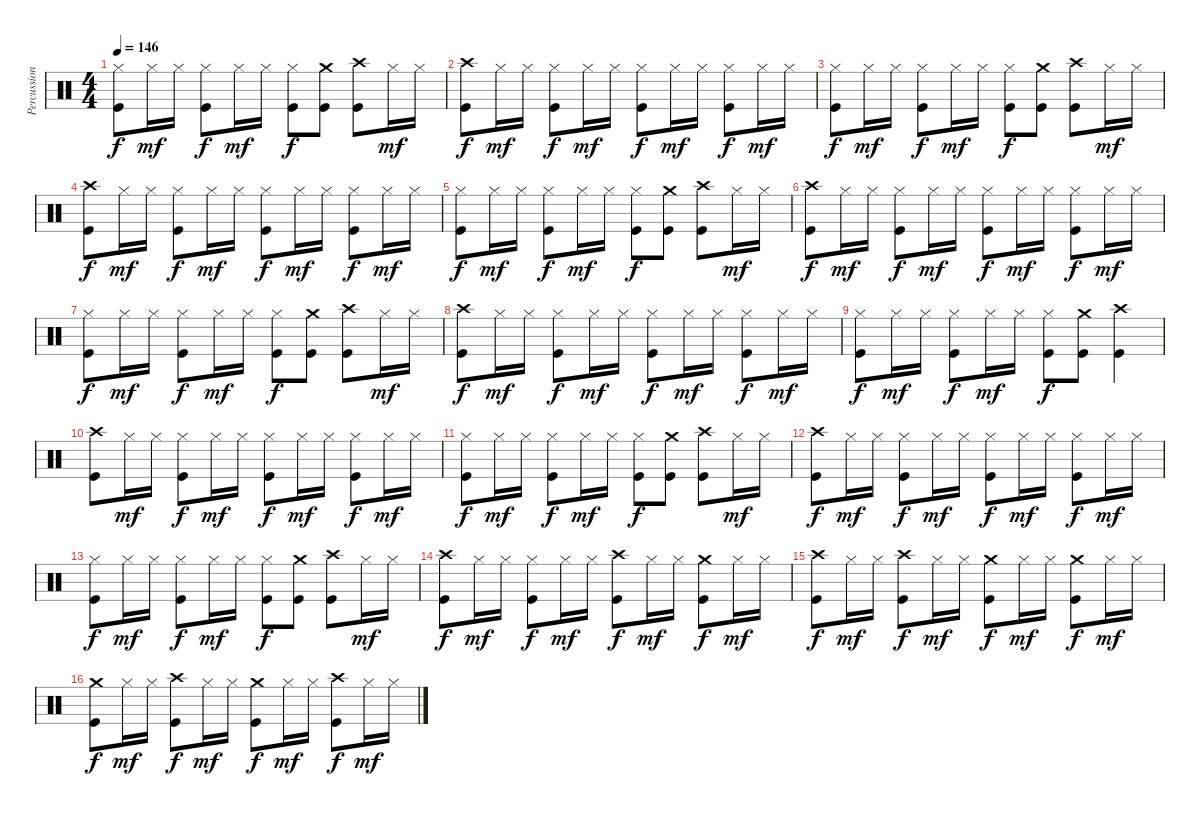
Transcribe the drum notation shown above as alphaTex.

\track ("Percussion" "Percussion") {instrument percussion}
\staff {score}
\articulation defaults
\ts (4 4)
\tempo 146
\clef neutral
\ks c
("Hi-Hat (closed)" "Kick (hit)").8{dy f} "Hi-Hat (closed)".16{dy mf} "Hi-Hat (closed)".16 ("Hi-Hat (closed)" "Kick (hit)").8{dy f} "Hi-Hat (closed)".16{dy mf} "Hi-Hat (closed)".16 ("Hi-Hat (closed)" "Kick (hit)").8{dy f} ("Crash medium (hit)" "Kick (hit)").8 ("Crash high (hit)" "Kick (hit)").8 "Hi-Hat (closed)".16{dy mf} "Hi-Hat (closed)".16 |
("Crash high (hit)" "Kick (hit)").8{dy f} "Hi-Hat (closed)".16{dy mf} "Hi-Hat (closed)".16 ("Hi-Hat (closed)" "Kick (hit)").8{dy f} "Hi-Hat (closed)".16{dy mf} "Hi-Hat (closed)".16 ("Hi-Hat (closed)" "Kick (hit)").8{dy f} "Hi-Hat (closed)".16{dy mf} "Hi-Hat (closed)".16 ("Hi-Hat (closed)" "Kick (hit)").8{dy f} "Hi-Hat (closed)".16{dy mf} "Hi-Hat (closed)".16 |
("Hi-Hat (closed)" "Kick (hit)").8{dy f} "Hi-Hat (closed)".16{dy mf} "Hi-Hat (closed)".16 ("Hi-Hat (closed)" "Kick (hit)").8{dy f} "Hi-Hat (closed)".16{dy mf} "Hi-Hat (closed)".16 ("Hi-Hat (closed)" "Kick (hit)").8{dy f} ("Crash medium (hit)" "Kick (hit)").8 ("Crash high (hit)" "Kick (hit)").8 "Hi-Hat (closed)".16{dy mf} "Hi-Hat (closed)".16 |
("Crash high (hit)" "Kick (hit)").8{dy f} "Hi-Hat (closed)".16{dy mf} "Hi-Hat (closed)".16 ("Hi-Hat (closed)" "Kick (hit)").8{dy f} "Hi-Hat (closed)".16{dy mf} "Hi-Hat (closed)".16 ("Hi-Hat (closed)" "Kick (hit)").8{dy f} "Hi-Hat (closed)".16{dy mf} "Hi-Hat (closed)".16 ("Hi-Hat (closed)" "Kick (hit)").8{dy f} "Hi-Hat (closed)".16{dy mf} "Hi-Hat (closed)".16 |
("Hi-Hat (closed)" "Kick (hit)").8{dy f} "Hi-Hat (closed)".16{dy mf} "Hi-Hat (closed)".16 ("Hi-Hat (closed)" "Kick (hit)").8{dy f} "Hi-Hat (closed)".16{dy mf} "Hi-Hat (closed)".16 ("Hi-Hat (closed)" "Kick (hit)").8{dy f} ("Crash medium (hit)" "Kick (hit)").8 ("Crash high (hit)" "Kick (hit)").8 "Hi-Hat (closed)".16{dy mf} "Hi-Hat (closed)".16 |
("Crash high (hit)" "Kick (hit)").8{dy f} "Hi-Hat (closed)".16{dy mf} "Hi-Hat (closed)".16 ("Hi-Hat (closed)" "Kick (hit)").8{dy f} "Hi-Hat (closed)".16{dy mf} "Hi-Hat (closed)".16 ("Hi-Hat (closed)" "Kick (hit)").8{dy f} "Hi-Hat (closed)".16{dy mf} "Hi-Hat (closed)".16 ("Hi-Hat (closed)" "Kick (hit)").8{dy f} "Hi-Hat (closed)".16{dy mf} "Hi-Hat (closed)".16 |
("Hi-Hat (closed)" "Kick (hit)").8{dy f} "Hi-Hat (closed)".16{dy mf} "Hi-Hat (closed)".16 ("Hi-Hat (closed)" "Kick (hit)").8{dy f} "Hi-Hat (closed)".16{dy mf} "Hi-Hat (closed)".16 ("Hi-Hat (closed)" "Kick (hit)").8{dy f} ("Crash medium (hit)" "Kick (hit)").8 ("Crash high (hit)" "Kick (hit)").8 "Hi-Hat (closed)".16{dy mf} "Hi-Hat (closed)".16 |
("Crash high (hit)" "Kick (hit)").8{dy f} "Hi-Hat (closed)".16{dy mf} "Hi-Hat (closed)".16 ("Hi-Hat (closed)" "Kick (hit)").8{dy f} "Hi-Hat (closed)".16{dy mf} "Hi-Hat (closed)".16 ("Hi-Hat (closed)" "Kick (hit)").8{dy f} "Hi-Hat (closed)".16{dy mf} "Hi-Hat (closed)".16 ("Hi-Hat (closed)" "Kick (hit)").8{dy f} "Hi-Hat (closed)".16{dy mf} "Hi-Hat (closed)".16 |
("Hi-Hat (closed)" "Kick (hit)").8{dy f} "Hi-Hat (closed)".16{dy mf} "Hi-Hat (closed)".16 ("Hi-Hat (closed)" "Kick (hit)").8{dy f} "Hi-Hat (closed)".16{dy mf} "Hi-Hat (closed)".16 ("Hi-Hat (closed)" "Kick (hit)").8{dy f} ("Crash medium (hit)" "Kick (hit)").8 ("Crash high (hit)" "Kick (hit)").4 |
("Crash high (hit)" "Kick (hit)").8 "Hi-Hat (closed)".16{dy mf} "Hi-Hat (closed)".16 ("Hi-Hat (closed)" "Kick (hit)").8{dy f} "Hi-Hat (closed)".16{dy mf} "Hi-Hat (closed)".16 ("Hi-Hat (closed)" "Kick (hit)").8{dy f} "Hi-Hat (closed)".16{dy mf} "Hi-Hat (closed)".16 ("Hi-Hat (closed)" "Kick (hit)").8{dy f} "Hi-Hat (closed)".16{dy mf} "Hi-Hat (closed)".16 |
("Hi-Hat (closed)" "Kick (hit)").8{dy f} "Hi-Hat (closed)".16{dy mf} "Hi-Hat (closed)".16 ("Hi-Hat (closed)" "Kick (hit)").8{dy f} "Hi-Hat (closed)".16{dy mf} "Hi-Hat (closed)".16 ("Hi-Hat (closed)" "Kick (hit)").8{dy f} ("Crash medium (hit)" "Kick (hit)").8 ("Crash high (hit)" "Kick (hit)").8 "Hi-Hat (closed)".16{dy mf} "Hi-Hat (closed)".16 |
("Crash high (hit)" "Kick (hit)").8{dy f} "Hi-Hat (closed)".16{dy mf} "Hi-Hat (closed)".16 ("Hi-Hat (closed)" "Kick (hit)").8{dy f} "Hi-Hat (closed)".16{dy mf} "Hi-Hat (closed)".16 ("Hi-Hat (closed)" "Kick (hit)").8{dy f} "Hi-Hat (closed)".16{dy mf} "Hi-Hat (closed)".16 ("Hi-Hat (closed)" "Kick (hit)").8{dy f} "Hi-Hat (closed)".16{dy mf} "Hi-Hat (closed)".16 |
("Hi-Hat (closed)" "Kick (hit)").8{dy f} "Hi-Hat (closed)".16{dy mf} "Hi-Hat (closed)".16 ("Hi-Hat (closed)" "Kick (hit)").8{dy f} "Hi-Hat (closed)".16{dy mf} "Hi-Hat (closed)".16 ("Hi-Hat (closed)" "Kick (hit)").8{dy f} ("Crash medium (hit)" "Kick (hit)").8 ("Crash high (hit)" "Kick (hit)").8 "Hi-Hat (closed)".16{dy mf} "Hi-Hat (closed)".16 |
("Crash high (hit)" "Kick (hit)").8{dy f} "Hi-Hat (closed)".16{dy mf} "Hi-Hat (closed)".16 ("Hi-Hat (closed)" "Kick (hit)").8{dy f} "Hi-Hat (closed)".16{dy mf} "Hi-Hat (closed)".16 ("Crash high (hit)" "Kick (hit)").8{dy f} "Hi-Hat (closed)".16{dy mf} "Hi-Hat (closed)".16 ("Crash medium (hit)" "Kick (hit)").8{dy f} "Hi-Hat (closed)".16{dy mf} "Hi-Hat (closed)".16 |
("Crash high (hit)" "Kick (hit)").8{dy f} "Hi-Hat (closed)".16{dy mf} "Hi-Hat (closed)".16 ("Crash high (hit)" "Kick (hit)").8{dy f} "Hi-Hat (closed)".16{dy mf} "Hi-Hat (closed)".16 ("Crash medium (hit)" "Kick (hit)").8{dy f} "Hi-Hat (closed)".16{dy mf} "Hi-Hat (closed)".16 ("Crash medium (hit)" "Kick (hit)").8{dy f} "Hi-Hat (closed)".16{dy mf} "Hi-Hat (closed)".16 |
("Crash medium (hit)" "Kick (hit)").8{dy f} "Hi-Hat (closed)".16{dy mf} "Hi-Hat (closed)".16 ("Crash high (hit)" "Kick (hit)").8{dy f} "Hi-Hat (closed)".16{dy mf} "Hi-Hat (closed)".16 ("Crash medium (hit)" "Kick (hit)").8{dy f} "Hi-Hat (closed)".16{dy mf} "Hi-Hat (closed)".16 ("Crash high (hit)" "Kick (hit)").8{dy f} "Hi-Hat (closed)".16{dy mf} "Hi-Hat (closed)".16
